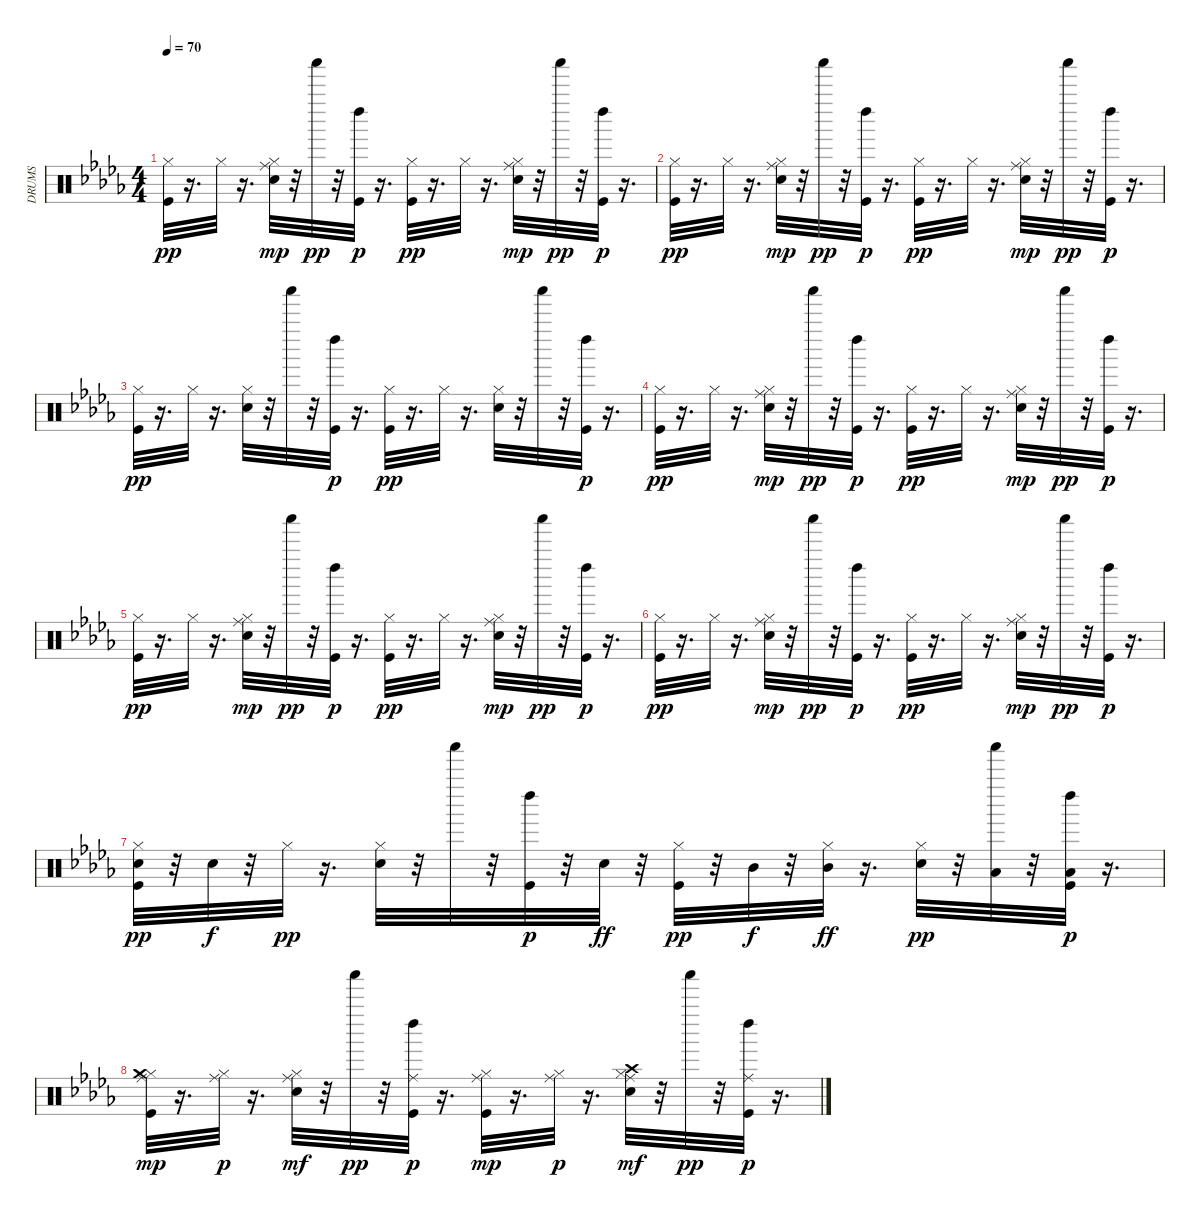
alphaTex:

\track ("DRUMS" "DRUMS") {instrument percussion}
\staff {score}
\articulation defaults
\ts (4 4)
\tempo 70
\clef neutral
\ks bbminor
("Kick (hit)" "Hi-Hat (closed)").32{dy pp} r.16{d} "Hi-Hat (closed)".32 r.16{d} ("Electric Snare (hit)" "Hi-Hat (closed)" "Ride (middle)").32{dy mp} r.32 "Shaker (hit)".32{dy pp} r.32 ("Kick (hit)" "Left Maraca (hit)").32{dy p} r.16{d} ("Kick (hit)" "Hi-Hat (closed)").32{dy pp} r.16{d} "Hi-Hat (closed)".32 r.16{d} ("Electric Snare (hit)" "Hi-Hat (closed)" "Ride (middle)").32{dy mp} r.32 "Shaker (hit)".32{dy pp} r.32 ("Kick (hit)" "Left Maraca (hit)").32{dy p} r.16{d} |
("Kick (hit)" "Hi-Hat (closed)").32{dy pp} r.16{d} "Hi-Hat (closed)".32 r.16{d} ("Electric Snare (hit)" "Hi-Hat (closed)" "Ride (middle)").32{dy mp} r.32 "Shaker (hit)".32{dy pp} r.32 ("Kick (hit)" "Left Maraca (hit)").32{dy p} r.16{d} ("Kick (hit)" "Hi-Hat (closed)").32{dy pp} r.16{d} "Hi-Hat (closed)".32 r.16{d} ("Electric Snare (hit)" "Hi-Hat (closed)" "Ride (middle)").32{dy mp} r.32 "Shaker (hit)".32{dy pp} r.32 ("Kick (hit)" "Left Maraca (hit)").32{dy p} r.16{d} |
("Kick (hit)" "Hi-Hat (closed)").32{dy pp} r.16{d} "Hi-Hat (closed)".32 r.16{d} ("Electric Snare (hit)" "Hi-Hat (closed)").32 r.32 "Shaker (hit)".32 r.32 ("Kick (hit)" "Left Maraca (hit)").32{dy p} r.16{d} ("Kick (hit)" "Hi-Hat (closed)").32{dy pp} r.16{d} "Hi-Hat (closed)".32 r.16{d} ("Electric Snare (hit)" "Hi-Hat (closed)").32 r.32 "Shaker (hit)".32 r.32 ("Kick (hit)" "Left Maraca (hit)").32{dy p} r.16{d} |
("Kick (hit)" "Hi-Hat (closed)").32{dy pp} r.16{d} "Hi-Hat (closed)".32 r.16{d} ("Electric Snare (hit)" "Hi-Hat (closed)" "Ride (middle)").32{dy mp} r.32 "Shaker (hit)".32{dy pp} r.32 ("Kick (hit)" "Left Maraca (hit)").32{dy p} r.16{d} ("Kick (hit)" "Hi-Hat (closed)").32{dy pp} r.16{d} "Hi-Hat (closed)".32 r.16{d} ("Electric Snare (hit)" "Hi-Hat (closed)" "Ride (middle)").32{dy mp} r.32 "Shaker (hit)".32{dy pp} r.32 ("Kick (hit)" "Left Maraca (hit)").32{dy p} r.16{d} |
("Kick (hit)" "Hi-Hat (closed)").32{dy pp} r.16{d} "Hi-Hat (closed)".32 r.16{d} ("Electric Snare (hit)" "Hi-Hat (closed)" "Ride (middle)").32{dy mp} r.32 "Shaker (hit)".32{dy pp} r.32 ("Kick (hit)" "Left Maraca (hit)").32{dy p} r.16{d} ("Kick (hit)" "Hi-Hat (closed)").32{dy pp} r.16{d} "Hi-Hat (closed)".32 r.16{d} ("Electric Snare (hit)" "Hi-Hat (closed)" "Ride (middle)").32{dy mp} r.32 "Shaker (hit)".32{dy pp} r.32 ("Kick (hit)" "Left Maraca (hit)").32{dy p} r.16{d} |
("Kick (hit)" "Hi-Hat (closed)").32{dy pp} r.16{d} "Hi-Hat (closed)".32 r.16{d} ("Electric Snare (hit)" "Hi-Hat (closed)" "Ride (middle)").32{dy mp} r.32 "Shaker (hit)".32{dy pp} r.32 ("Kick (hit)" "Left Maraca (hit)").32{dy p} r.16{d} ("Kick (hit)" "Hi-Hat (closed)").32{dy pp} r.16{d} "Hi-Hat (closed)".32 r.16{d} ("Electric Snare (hit)" "Hi-Hat (closed)" "Ride (middle)").32{dy mp} r.32 "Shaker (hit)".32{dy pp} r.32 ("Kick (hit)" "Left Maraca (hit)").32{dy p} r.16{d} |
("Kick (hit)" "Electric Snare (hit)" "Hi-Hat (closed)").32{dy pp} r.32 "Electric Snare (hit)".32{dy f} r.32 "Hi-Hat (closed)".32{dy pp} r.16{d} ("Electric Snare (hit)" "Hi-Hat (closed)").32 r.32 "Shaker (hit)".32 r.32 ("Kick (hit)" "Left Maraca (hit)").32{dy p} r.32 "Electric Snare (hit)".32{dy ff} r.32 ("Kick (hit)" "Hi-Hat (closed)").32{dy pp} r.32 "Mid Tom (hit)".32{dy f} r.32 ("Hi-Hat (closed)" "Mid Tom (hit)").32{dy ff} r.16{d} ("Electric Snare (hit)" "Hi-Hat (closed)").32{dy pp} r.32 ("Low Tom (hit)" "Shaker (hit)").32 r.32 ("Kick (hit)" "Low Tom (hit)" "Left Maraca (hit)").32{dy p} r.16{d} |
("Kick (hit)" "Hi-Hat (closed)" "Ride (middle)" "Crash medium (hit)").32{dy mp} r.16{d} ("Hi-Hat (closed)" "Ride (middle)").32{dy p} r.16{d} ("Electric Snare (hit)" "Hi-Hat (closed)" "Ride (middle)").32{dy mf} r.32 "Shaker (hit)".32{dy pp} r.32 ("Kick (hit)" "Ride (middle)" "Left Maraca (hit)").32{dy p} r.16{d} ("Kick (hit)" "Hi-Hat (closed)" "Ride (middle)").32{dy mp} r.16{d} ("Hi-Hat (closed)" "Ride (middle)").32{dy p} r.16{d} ("Electric Snare (hit)" "Hi-Hat (closed)" "Crash high (hit)" "Ride (middle)").32{dy mf} r.32 "Shaker (hit)".32{dy pp} r.32 ("Kick (hit)" "Ride (middle)" "Left Maraca (hit)").32{dy p} r.16{d}
